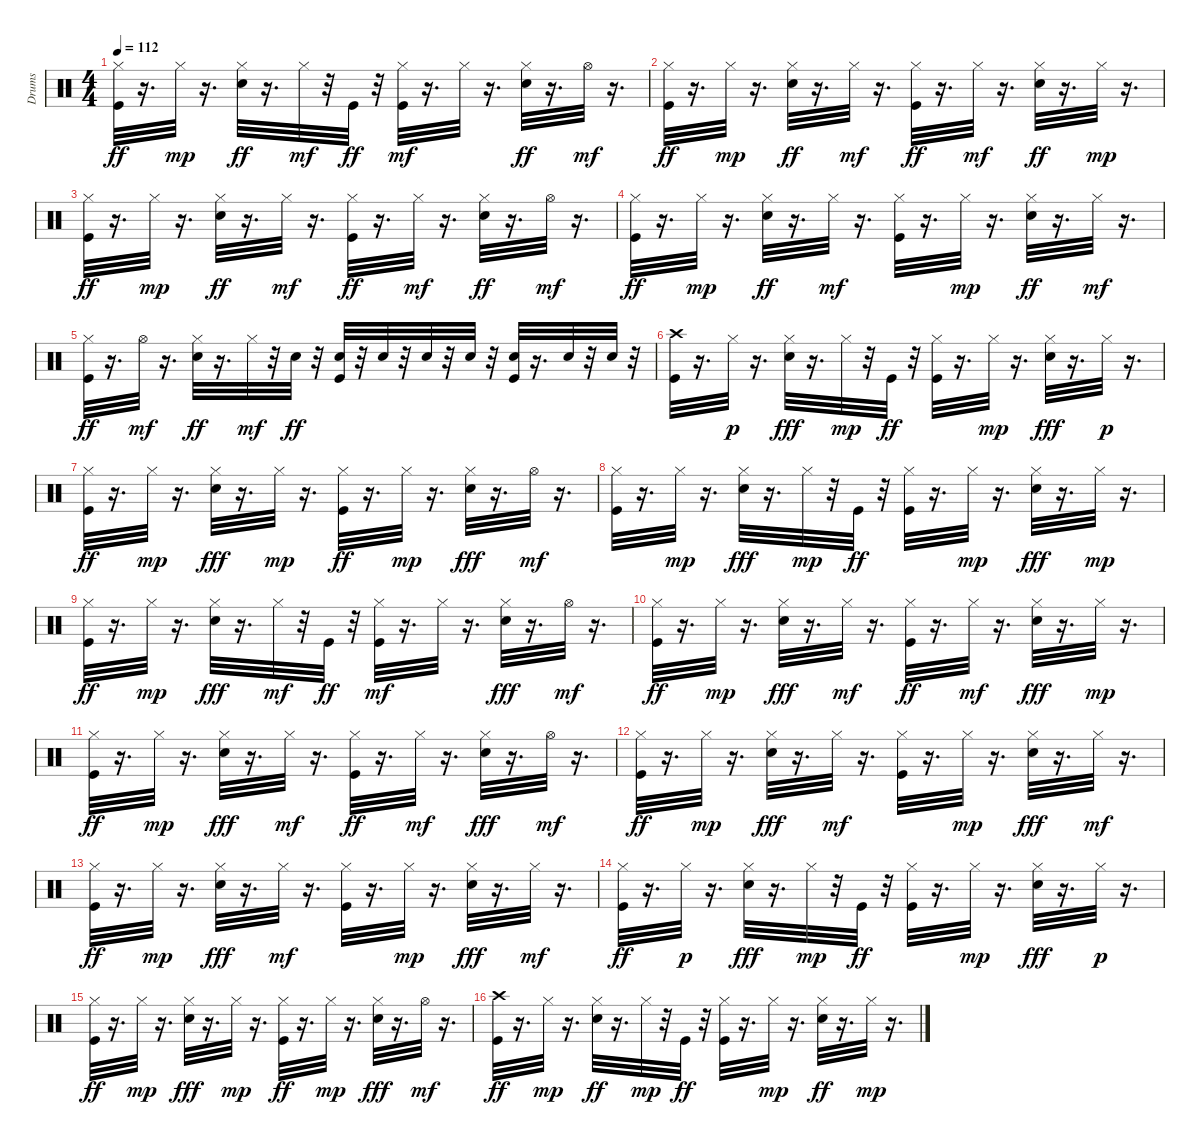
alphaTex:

\track ("Drums" "Drums") {instrument percussion}
\staff {score}
\articulation defaults
\ts (4 4)
\tempo 112
\clef neutral
\ks c
("Hi-Hat (closed)" "Kick (hit)").32{dy ff} r.16{d} "Hi-Hat (closed)".32{dy mp} r.16{d} ("Hi-Hat (closed)" "Electric Snare (hit)").32{dy ff} r.16{d} "Hi-Hat (closed)".32{dy mf} r.32 "Kick (hit)".32{dy ff} r.32 ("Kick (hit)" "Hi-Hat (closed)").32{dy mf} r.16{d} "Hi-Hat (closed)".32 r.16{d} ("Electric Snare (hit)" "Hi-Hat (closed)").32{dy ff} r.16{d} "Hi-Hat (open)".32{dy mf} r.16{d} |
("Hi-Hat (closed)" "Kick (hit)").32{dy ff} r.16{d} "Hi-Hat (closed)".32{dy mp} r.16{d} ("Hi-Hat (closed)" "Electric Snare (hit)").32{dy ff} r.16{d} "Hi-Hat (closed)".32{dy mf} r.16{d} ("Hi-Hat (closed)" "Kick (hit)").32{dy ff} r.16{d} "Hi-Hat (closed)".32{dy mf} r.16{d} ("Hi-Hat (closed)" "Electric Snare (hit)").32{dy ff} r.16{d} "Hi-Hat (closed)".32{dy mp} r.16{d} |
("Hi-Hat (closed)" "Kick (hit)").32{dy ff} r.16{d} "Hi-Hat (closed)".32{dy mp} r.16{d} ("Hi-Hat (closed)" "Electric Snare (hit)").32{dy ff} r.16{d} "Hi-Hat (closed)".32{dy mf} r.16{d} ("Hi-Hat (closed)" "Kick (hit)").32{dy ff} r.16{d} "Hi-Hat (closed)".32{dy mf} r.16{d} ("Hi-Hat (closed)" "Electric Snare (hit)").32{dy ff} r.16{d} "Hi-Hat (open)".32{dy mf} r.16{d} |
("Hi-Hat (closed)" "Kick (hit)").32{dy ff} r.16{d} "Hi-Hat (closed)".32{dy mp} r.16{d} ("Electric Snare (hit)" "Hi-Hat (closed)").32{dy ff} r.16{d} "Hi-Hat (closed)".32{dy mf} r.16{d} ("Kick (hit)" "Hi-Hat (closed)").32 r.16{d} "Hi-Hat (closed)".32{dy mp} r.16{d} ("Hi-Hat (closed)" "Electric Snare (hit)").32{dy ff} r.16{d} "Hi-Hat (closed)".32{dy mf} r.16{d} |
("Hi-Hat (closed)" "Kick (hit)").32{dy ff} r.16{d} "Hi-Hat (open)".32{dy mf} r.16{d} ("Hi-Hat (closed)" "Electric Snare (hit)").32{dy ff} r.16{d} "Hi-Hat (closed)".32{dy mf} r.32 "Electric Snare (hit)".32{dy ff} r.32 ("Kick (hit)" "Electric Snare (hit)").32 r.32 "Electric Snare (hit)".32 r.32 "Electric Snare (hit)".32 r.32 "Electric Snare (hit)".32 r.32 ("Kick (hit)" "Electric Snare (hit)").32 r.16{d} "Electric Snare (hit)".32 r.32 "Electric Snare (hit)".32 r.32 |
("Kick (hit)" "Crash high (hit)").32 r.16{d} "Hi-Hat (closed)".32{dy p} r.16{d} ("Hi-Hat (closed)" "Electric Snare (hit)").32{dy fff} r.16{d} "Hi-Hat (closed)".32{dy mp} r.32 "Kick (hit)".32{dy ff} r.32 ("Kick (hit)" "Hi-Hat (closed)").32 r.16{d} "Hi-Hat (closed)".32{dy mp} r.16{d} ("Hi-Hat (closed)" "Electric Snare (hit)").32{dy fff} r.16{d} "Hi-Hat (closed)".32{dy p} r.16{d} |
("Hi-Hat (closed)" "Kick (hit)").32{dy ff} r.16{d} "Hi-Hat (closed)".32{dy mp} r.16{d} ("Hi-Hat (closed)" "Electric Snare (hit)").32{dy fff} r.16{d} "Hi-Hat (closed)".32{dy mp} r.16{d} ("Hi-Hat (closed)" "Kick (hit)").32{dy ff} r.16{d} "Hi-Hat (closed)".32{dy mp} r.16{d} ("Hi-Hat (closed)" "Electric Snare (hit)").32{dy fff} r.16{d} "Hi-Hat (open)".32{dy mf} r.16{d} |
("Kick (hit)" "Hi-Hat (closed)").32 r.16{d} "Hi-Hat (closed)".32{dy mp} r.16{d} ("Electric Snare (hit)" "Hi-Hat (closed)").32{dy fff} r.16{d} "Hi-Hat (closed)".32{dy mp} r.32 "Kick (hit)".32{dy ff} r.32 ("Hi-Hat (closed)" "Kick (hit)").32 r.16{d} "Hi-Hat (closed)".32{dy mp} r.16{d} ("Electric Snare (hit)" "Hi-Hat (closed)").32{dy fff} r.16{d} "Hi-Hat (closed)".32{dy mp} r.16{d} |
("Hi-Hat (closed)" "Kick (hit)").32{dy ff} r.16{d} "Hi-Hat (closed)".32{dy mp} r.16{d} ("Hi-Hat (closed)" "Electric Snare (hit)").32{dy fff} r.16{d} "Hi-Hat (closed)".32{dy mf} r.32 "Kick (hit)".32{dy ff} r.32 ("Kick (hit)" "Hi-Hat (closed)").32{dy mf} r.16{d} "Hi-Hat (closed)".32 r.16{d} ("Electric Snare (hit)" "Hi-Hat (closed)").32{dy fff} r.16{d} "Hi-Hat (open)".32{dy mf} r.16{d} |
("Hi-Hat (closed)" "Kick (hit)").32{dy ff} r.16{d} "Hi-Hat (closed)".32{dy mp} r.16{d} ("Hi-Hat (closed)" "Electric Snare (hit)").32{dy fff} r.16{d} "Hi-Hat (closed)".32{dy mf} r.16{d} ("Hi-Hat (closed)" "Kick (hit)").32{dy ff} r.16{d} "Hi-Hat (closed)".32{dy mf} r.16{d} ("Hi-Hat (closed)" "Electric Snare (hit)").32{dy fff} r.16{d} "Hi-Hat (closed)".32{dy mp} r.16{d} |
("Hi-Hat (closed)" "Kick (hit)").32{dy ff} r.16{d} "Hi-Hat (closed)".32{dy mp} r.16{d} ("Hi-Hat (closed)" "Electric Snare (hit)").32{dy fff} r.16{d} "Hi-Hat (closed)".32{dy mf} r.16{d} ("Hi-Hat (closed)" "Kick (hit)").32{dy ff} r.16{d} "Hi-Hat (closed)".32{dy mf} r.16{d} ("Hi-Hat (closed)" "Electric Snare (hit)").32{dy fff} r.16{d} "Hi-Hat (open)".32{dy mf} r.16{d} |
("Hi-Hat (closed)" "Kick (hit)").32{dy ff} r.16{d} "Hi-Hat (closed)".32{dy mp} r.16{d} ("Electric Snare (hit)" "Hi-Hat (closed)").32{dy fff} r.16{d} "Hi-Hat (closed)".32{dy mf} r.16{d} ("Kick (hit)" "Hi-Hat (closed)").32 r.16{d} "Hi-Hat (closed)".32{dy mp} r.16{d} ("Hi-Hat (closed)" "Electric Snare (hit)").32{dy fff} r.16{d} "Hi-Hat (closed)".32{dy mf} r.16{d} |
("Hi-Hat (closed)" "Kick (hit)").32{dy ff} r.16{d} "Hi-Hat (closed)".32{dy mp} r.16{d} ("Electric Snare (hit)" "Hi-Hat (closed)").32{dy fff} r.16{d} "Hi-Hat (closed)".32{dy mf} r.16{d} ("Kick (hit)" "Hi-Hat (closed)").32 r.16{d} "Hi-Hat (closed)".32{dy mp} r.16{d} ("Hi-Hat (closed)" "Electric Snare (hit)").32{dy fff} r.16{d} "Hi-Hat (closed)".32{dy mf} r.16{d} |
("Kick (hit)" "Hi-Hat (closed)").32{dy ff} r.16{d} "Hi-Hat (closed)".32{dy p} r.16{d} ("Hi-Hat (closed)" "Electric Snare (hit)").32{dy fff} r.16{d} "Hi-Hat (closed)".32{dy mp} r.32 "Kick (hit)".32{dy ff} r.32 ("Kick (hit)" "Hi-Hat (closed)").32 r.16{d} "Hi-Hat (closed)".32{dy mp} r.16{d} ("Hi-Hat (closed)" "Electric Snare (hit)").32{dy fff} r.16{d} "Hi-Hat (closed)".32{dy p} r.16{d} |
("Hi-Hat (closed)" "Kick (hit)").32{dy ff} r.16{d} "Hi-Hat (closed)".32{dy mp} r.16{d} ("Hi-Hat (closed)" "Electric Snare (hit)").32{dy fff} r.16{d} "Hi-Hat (closed)".32{dy mp} r.16{d} ("Hi-Hat (closed)" "Kick (hit)").32{dy ff} r.16{d} "Hi-Hat (closed)".32{dy mp} r.16{d} ("Hi-Hat (closed)" "Electric Snare (hit)").32{dy fff} r.16{d} "Hi-Hat (open)".32{dy mf} r.16{d} |
("Kick (hit)" "Crash high (hit)").32{dy ff} r.16{d} "Hi-Hat (closed)".32{dy mp} r.16{d} ("Hi-Hat (closed)" "Electric Snare (hit)").32{dy ff} r.16{d} "Hi-Hat (closed)".32{dy mp} r.32 "Kick (hit)".32{dy ff} r.32 ("Hi-Hat (closed)" "Kick (hit)").32 r.16{d} "Hi-Hat (closed)".32{dy mp} r.16{d} ("Electric Snare (hit)" "Hi-Hat (closed)").32{dy ff} r.16{d} "Hi-Hat (closed)".32{dy mp} r.16{d}
